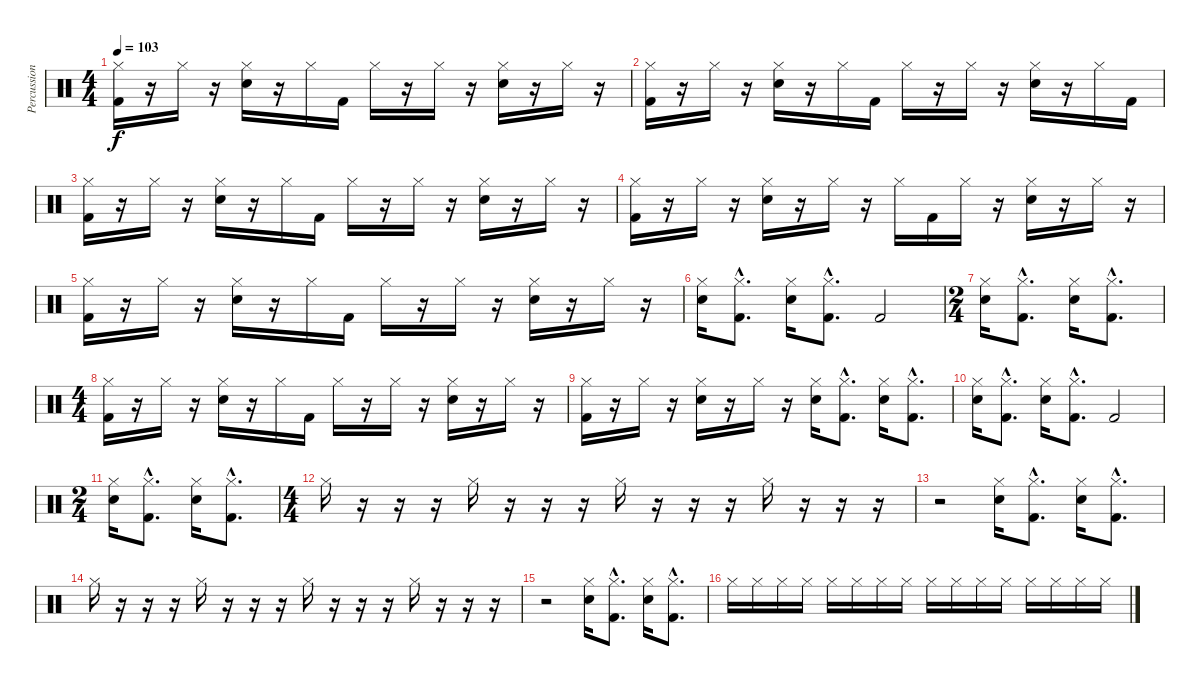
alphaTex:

\track ("Percussions" "Percussion") {instrument percussion}
\staff {score}
\articulation defaults
\ts (4 4)
\tempo 103
\clef neutral
\ks c
("Hi-Hat (closed)" "Kick (hit) 2").16{dy f} r.16 "Hi-Hat (closed)".16 r.16 ("Hi-Hat (closed)" "Snare (hit) 2").16 r.16 "Hi-Hat (closed)".16 "Kick (hit) 2".16 "Hi-Hat (closed)".16 r.16 "Hi-Hat (closed)".16 r.16 ("Hi-Hat (closed)" "Snare (hit) 2").16 r.16 "Hi-Hat (closed)".16 r.16 |
("Hi-Hat (closed)" "Kick (hit) 2").16 r.16 "Hi-Hat (closed)".16 r.16 ("Hi-Hat (closed)" "Snare (hit) 2").16 r.16 "Hi-Hat (closed)".16 "Kick (hit) 2".16 "Hi-Hat (closed)".16 r.16 "Hi-Hat (closed)".16 r.16 ("Hi-Hat (closed)" "Snare (hit) 2").16 r.16 "Hi-Hat (closed)".16 "Kick (hit) 2".16 |
("Hi-Hat (closed)" "Kick (hit) 2").16 r.16 "Hi-Hat (closed)".16 r.16 ("Hi-Hat (closed)" "Snare (hit) 2").16 r.16 "Hi-Hat (closed)".16 "Kick (hit) 2".16 "Hi-Hat (closed)".16 r.16 "Hi-Hat (closed)".16 r.16 ("Hi-Hat (closed)" "Snare (hit) 2").16 r.16 "Hi-Hat (closed)".16 r.16 |
("Hi-Hat (closed)" "Kick (hit) 2").16 r.16 "Hi-Hat (closed)".16 r.16 ("Hi-Hat (closed)" "Snare (hit) 2").16 r.16 "Hi-Hat (closed)".16 r.16 "Hi-Hat (closed)".16 "Kick (hit) 2".16 "Hi-Hat (closed)".16 r.16 ("Hi-Hat (closed)" "Snare (hit) 2").16 r.16 "Hi-Hat (closed)".16 r.16 |
("Hi-Hat (closed)" "Kick (hit) 2").16 r.16 "Hi-Hat (closed)".16 r.16 ("Hi-Hat (closed)" "Snare (hit) 2").16 r.16 "Hi-Hat (closed)".16 "Kick (hit) 2".16 "Hi-Hat (closed)".16 r.16 "Hi-Hat (closed)".16 r.16 ("Hi-Hat (closed)" "Snare (hit) 2").16 r.16 "Hi-Hat (closed)".16 r.16 |
("Hi-Hat (closed)" "Snare (hit) 2").16 ("Hi-Hat (closed)"{hac} "Kick (hit) 2"{hac}).8{d} ("Hi-Hat (closed)" "Snare (hit) 2").16 ("Hi-Hat (closed)"{hac} "Kick (hit) 2"{hac}).8{d} "Kick (hit) 2".2 |
\ts (2 4)
("Hi-Hat (closed)" "Snare (hit) 2").16 ("Hi-Hat (closed)"{hac} "Kick (hit) 2"{hac}).8{d} ("Hi-Hat (closed)" "Snare (hit) 2").16 ("Hi-Hat (closed)"{hac} "Kick (hit) 2"{hac}).8{d} |
\ts (4 4)
("Hi-Hat (closed)" "Kick (hit) 2").16 r.16 "Hi-Hat (closed)".16 r.16 ("Hi-Hat (closed)" "Snare (hit) 2").16 r.16 "Hi-Hat (closed)".16 "Kick (hit) 2".16 "Hi-Hat (closed)".16 r.16 "Hi-Hat (closed)".16 r.16 ("Hi-Hat (closed)" "Snare (hit) 2").16 r.16 "Hi-Hat (closed)".16 r.16 |
("Hi-Hat (closed)" "Kick (hit) 2").16 r.16 "Hi-Hat (closed)".16 r.16 ("Hi-Hat (closed)" "Snare (hit) 2").16 r.16 "Hi-Hat (closed)".16 r.16 ("Hi-Hat (closed)" "Snare (hit) 2").16 ("Hi-Hat (closed)"{hac} "Kick (hit) 2"{hac}).8{d} ("Hi-Hat (closed)" "Snare (hit) 2").16 ("Hi-Hat (closed)"{hac} "Kick (hit) 2"{hac}).8{d} |
("Hi-Hat (closed)" "Snare (hit) 2").16 ("Hi-Hat (closed)"{hac} "Kick (hit) 2"{hac}).8{d} ("Hi-Hat (closed)" "Snare (hit) 2").16 ("Hi-Hat (closed)"{hac} "Kick (hit) 2"{hac}).8{d} "Kick (hit) 2".2 |
\ts (2 4)
("Hi-Hat (closed)" "Snare (hit) 2").16 ("Hi-Hat (closed)"{hac} "Kick (hit) 2"{hac}).8{d} ("Hi-Hat (closed)" "Snare (hit) 2").16 ("Hi-Hat (closed)"{hac} "Kick (hit) 2"{hac}).8{d} |
\ts (4 4)
"Hi-Hat (closed)".16 r.16 r.16 r.16 "Hi-Hat (closed)".16 r.16 r.16 r.16 "Hi-Hat (closed)".16 r.16 r.16 r.16 "Hi-Hat (closed)".16 r.16 r.16 r.16 |
r.2 ("Hi-Hat (closed)" "Snare (hit) 2").16 ("Hi-Hat (closed)"{hac} "Kick (hit) 2"{hac}).8{d} ("Hi-Hat (closed)" "Snare (hit) 2").16 ("Hi-Hat (closed)"{hac} "Kick (hit) 2"{hac}).8{d} |
"Hi-Hat (closed)".16 r.16 r.16 r.16 "Hi-Hat (closed)".16 r.16 r.16 r.16 "Hi-Hat (closed)".16 r.16 r.16 r.16 "Hi-Hat (closed)".16 r.16 r.16 r.16 |
r.2 ("Hi-Hat (closed)" "Snare (hit) 2").16 ("Hi-Hat (closed)"{hac} "Kick (hit) 2"{hac}).8{d} ("Hi-Hat (closed)" "Snare (hit) 2").16 ("Hi-Hat (closed)"{hac} "Kick (hit) 2"{hac}).8{d} |
"Hi-Hat (closed)".16 "Hi-Hat (closed)".16 "Hi-Hat (closed)".16 "Hi-Hat (closed)".16 "Hi-Hat (closed)".16 "Hi-Hat (closed)".16 "Hi-Hat (closed)".16 "Hi-Hat (closed)".16 "Hi-Hat (closed)".16 "Hi-Hat (closed)".16 "Hi-Hat (closed)".16 "Hi-Hat (closed)".16 "Hi-Hat (closed)".16 "Hi-Hat (closed)".16 "Hi-Hat (closed)".16 "Hi-Hat (closed)".16
